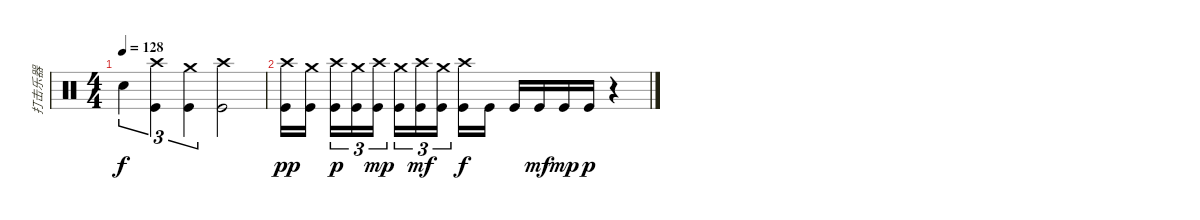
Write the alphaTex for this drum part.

\track ("打击乐器" "打击乐器") {instrument percussion}
\staff {score}
\articulation defaults
\ts (4 4)
\tempo 128
\clef neutral
\ks c "Electric Snare (hit)".4{tu (3 2) dy f}
("Crash high (hit)" "Kick (hit)").4{tu (3 2)} ("Crash medium (hit)" "Kick (hit)").4{tu (3 2)} ("Crash high (hit)" "Kick (hit)").2 |
("Crash high (hit)" "Kick (hit)").16{dy pp} ("Crash medium (hit)" "Kick (hit)").16 ("Crash high (hit)" "Kick (hit)").16{tu (3 2) dy p} ("Crash medium (hit)" "Kick (hit)").16{tu (3 2)} ("Crash high (hit)" "Kick (hit)").16{tu (3 2) dy mp} ("Crash medium (hit)" "Kick (hit)").16{tu (3 2)} ("Crash high (hit)" "Kick (hit)").16{tu (3 2) dy mf} ("Crash medium (hit)" "Kick (hit)").16{tu (3 2)} ("Crash high (hit)" "Kick (hit)").16{dy f} "Kick (hit)".16 "Kick (hit)".16 "Kick (hit)".16{dy mf} "Kick (hit)".16{dy mp} "Kick (hit)".16{dy p} r.4
